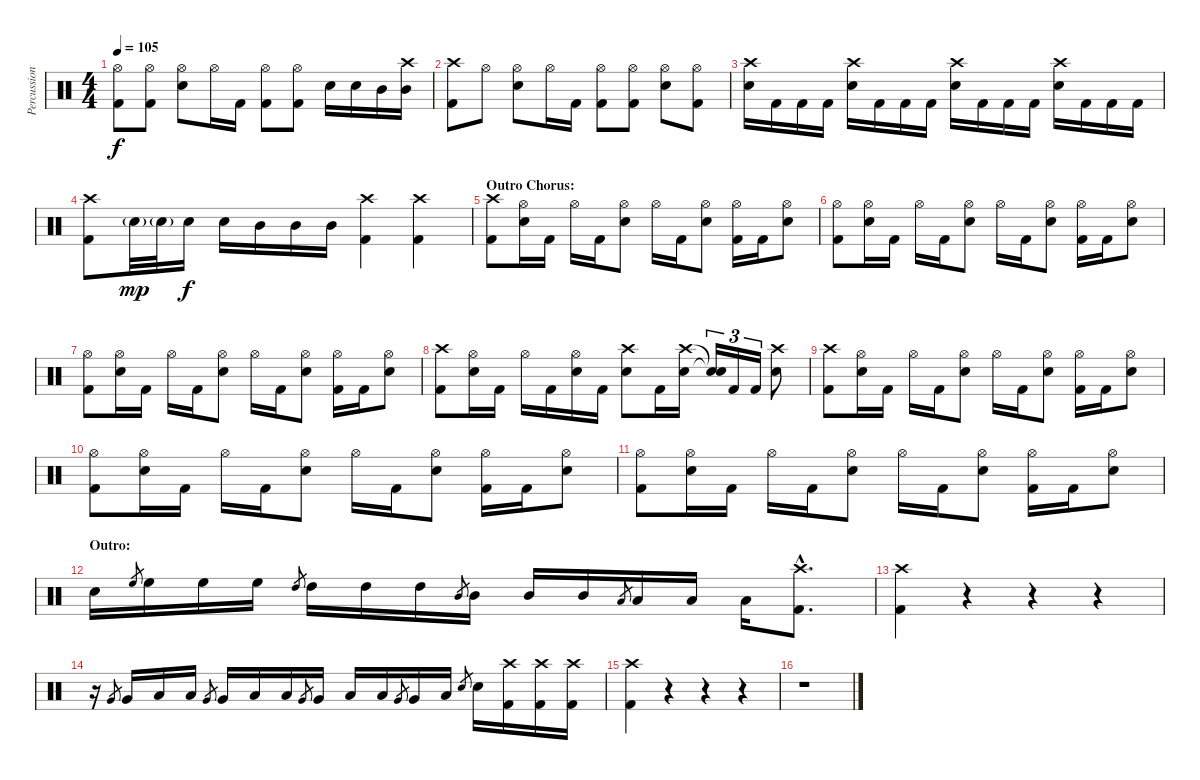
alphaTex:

\track ("Percussion" "Percussion") {instrument percussion}
\staff {score}
\articulation defaults
\ts (4 4)
\tempo 105
\clef neutral
\ks c
("Hi-Hat (open)" "Kick (hit) 2").8{dy f} ("Hi-Hat (open)" "Kick (hit) 2").8 ("Hi-Hat (open)" "Snare (hit) 2").8 "Hi-Hat (open)".16 "Kick (hit) 2".16 ("Hi-Hat (open)" "Kick (hit) 2").8 ("Hi-Hat (open)" "Kick (hit) 2").8 "Snare (hit) 2".16 "Snare (hit) 2".16 "Mid Tom (hit)".16 ("Crash high (hit)" "Mid Tom (hit)").16 |
("Crash high (hit)" "Kick (hit) 2").8 "Hi-Hat (open)".8 ("Hi-Hat (open)" "Snare (hit) 2").8 "Hi-Hat (open)".16 "Kick (hit) 2".16 ("Hi-Hat (open)" "Kick (hit) 2").8 ("Hi-Hat (open)" "Kick (hit) 2").8 ("Hi-Hat (open)" "Snare (hit) 2").8 ("Hi-Hat (open)" "Kick (hit) 2").8 |
("Crash high (hit)" "Snare (hit) 2").16 "Kick (hit) 2".16 "Kick (hit) 2".16 "Kick (hit) 2".16 ("Crash high (hit)" "Snare (hit) 2").16 "Kick (hit) 2".16 "Kick (hit) 2".16 "Kick (hit) 2".16 ("Crash high (hit)" "Snare (hit) 2").16 "Kick (hit) 2".16 "Kick (hit) 2".16 "Kick (hit) 2".16 ("Crash high (hit)" "Snare (hit) 2").16 "Kick (hit) 2".16 "Kick (hit) 2".16 "Kick (hit) 2".16 |
("Crash high (hit)" "Kick (hit) 2").8 "Snare (hit) 2"{g}.32{dy mp} "Snare (hit) 2"{g}.32 "Snare (hit) 2".16{dy f} "Snare (hit) 2".16 "Mid Tom (hit)".16 "Mid Tom (hit)".16 "Mid Tom (hit)".16 ("Crash high (hit)" "Kick (hit) 2").4 ("Crash high (hit)" "Kick (hit) 2").4 |
\section ("" "Outro Chorus:")
("Crash high (hit)" "Kick (hit) 2").8 ("Hi-Hat (open)" "Snare (hit) 2").16 "Kick (hit) 2".16 "Hi-Hat (open)".16 "Kick (hit) 2".16 ("Hi-Hat (open)" "Snare (hit) 2").8 "Hi-Hat (open)".16 "Kick (hit) 2".16 ("Hi-Hat (open)" "Snare (hit) 2").8 ("Hi-Hat (open)" "Kick (hit) 2").16 "Kick (hit) 2".16 ("Hi-Hat (open)" "Snare (hit) 2").8 |
("Hi-Hat (open)" "Kick (hit) 2").8 ("Hi-Hat (open)" "Snare (hit) 2").16 "Kick (hit) 2".16 "Hi-Hat (open)".16 "Kick (hit) 2".16 ("Hi-Hat (open)" "Snare (hit) 2").8 "Hi-Hat (open)".16 "Kick (hit) 2".16 ("Hi-Hat (open)" "Snare (hit) 2").8 ("Hi-Hat (open)" "Kick (hit) 2").16 "Kick (hit) 2".16 ("Hi-Hat (open)" "Snare (hit) 2").8 |
("Hi-Hat (open)" "Kick (hit) 2").8 ("Hi-Hat (open)" "Snare (hit) 2").16 "Kick (hit) 2".16 "Hi-Hat (open)".16 "Kick (hit) 2".16 ("Hi-Hat (open)" "Snare (hit) 2").8 "Hi-Hat (open)".16 "Kick (hit) 2".16 ("Hi-Hat (open)" "Snare (hit) 2").8 ("Hi-Hat (open)" "Kick (hit) 2").16 "Kick (hit) 2".16 ("Hi-Hat (open)" "Snare (hit) 2").8 |
("Crash high (hit)" "Kick (hit) 2").8 ("Hi-Hat (open)" "Snare (hit) 2").16 "Kick (hit) 2".16 "Hi-Hat (open)".16 "Kick (hit) 2".16 ("Hi-Hat (open)" "Snare (hit) 2").16 "Kick (hit) 2".16 ("Crash high (hit)" "Snare (hit) 2").8 "Kick (hit) 2".16 ("Crash high (hit)" "Snare (hit) 2").16 ("Snare (hit)"{t} "Snare (hit)"{t}).16{tu (3 2)} "Kick (hit) 2".16{tu (3 2)} "Kick (hit) 2".16{tu (3 2)} ("Crash high (hit)" "Snare (hit) 2").8 |
("Crash high (hit)" "Kick (hit) 2").8 ("Hi-Hat (open)" "Snare (hit) 2").16 "Kick (hit) 2".16 "Hi-Hat (open)".16 "Kick (hit) 2".16 ("Hi-Hat (open)" "Snare (hit) 2").8 "Hi-Hat (open)".16 "Kick (hit) 2".16 ("Hi-Hat (open)" "Snare (hit) 2").8 ("Hi-Hat (open)" "Kick (hit) 2").16 "Kick (hit) 2".16 ("Hi-Hat (open)" "Snare (hit) 2").8 |
("Hi-Hat (open)" "Kick (hit) 2").8 ("Hi-Hat (open)" "Snare (hit) 2").16 "Kick (hit) 2".16 "Hi-Hat (open)".16 "Kick (hit) 2".16 ("Hi-Hat (open)" "Snare (hit) 2").8 "Hi-Hat (open)".16 "Kick (hit) 2".16 ("Hi-Hat (open)" "Snare (hit) 2").8 ("Hi-Hat (open)" "Kick (hit) 2").16 "Kick (hit) 2".16 ("Hi-Hat (open)" "Snare (hit) 2").8 |
("Hi-Hat (open)" "Kick (hit) 2").8 ("Hi-Hat (open)" "Snare (hit) 2").16 "Kick (hit) 2".16 "Hi-Hat (open)".16 "Kick (hit) 2".16 ("Hi-Hat (open)" "Snare (hit) 2").8 "Hi-Hat (open)".16 "Kick (hit) 2".16 ("Hi-Hat (open)" "Snare (hit) 2").8 ("Hi-Hat (open)" "Kick (hit) 2").16 "Kick (hit) 2".16 ("Hi-Hat (open)" "Snare (hit) 2").8 |
\section ("" "Outro:")
"Snare (hit) 2".16 "High Floor Tom (hit)".8{gr} "High Floor Tom (hit)".16 "High Floor Tom (hit)".16 "High Floor Tom (hit)".16 "High Tom (hit)".8{gr} "High Tom (hit)".16 "High Tom (hit)".16 "High Tom (hit)".16 "Mid Tom (hit)".8{gr} "Mid Tom (hit)".16 "Mid Tom (hit)".16 "Mid Tom (hit)".16 "Low Tom (hit)".8{gr} "Low Tom (hit)".16 "Low Tom (hit)".16 "Low Tom (hit)".16 ("Crash high (hit)"{hac} "Kick (hit) 2"{hac}).8{d} |
("Crash high (hit)" "Kick (hit) 2").4 r.4 r.4 r.4 |
r.16 "Very Low Tom (hit)".8{gr} "Very Low Tom (hit)".16 "Low Floor Tom (hit)".16 "Low Floor Tom (hit)".16 "Very Low Tom (hit)".8{gr} "Very Low Tom (hit)".16 "Low Floor Tom (hit)".16 "Low Floor Tom (hit)".16 "Very Low Tom (hit)".8{gr} "Very Low Tom (hit)".16 "Low Floor Tom (hit)".16 "Low Floor Tom (hit)".16 "Very Low Tom (hit)".8{gr} "Very Low Tom (hit)".16 "Low Floor Tom (hit)".16 "Snare (hit) 2".8{gr} "Snare (hit) 2".16 ("Crash high (hit)" "Kick (hit) 2").16 ("Crash high (hit)" "Kick (hit) 2").16 ("Crash high (hit)" "Kick (hit) 2").16 |
("Crash high (hit)" "Kick (hit) 2").4 r.4 r.4 r.4 |
r.1
